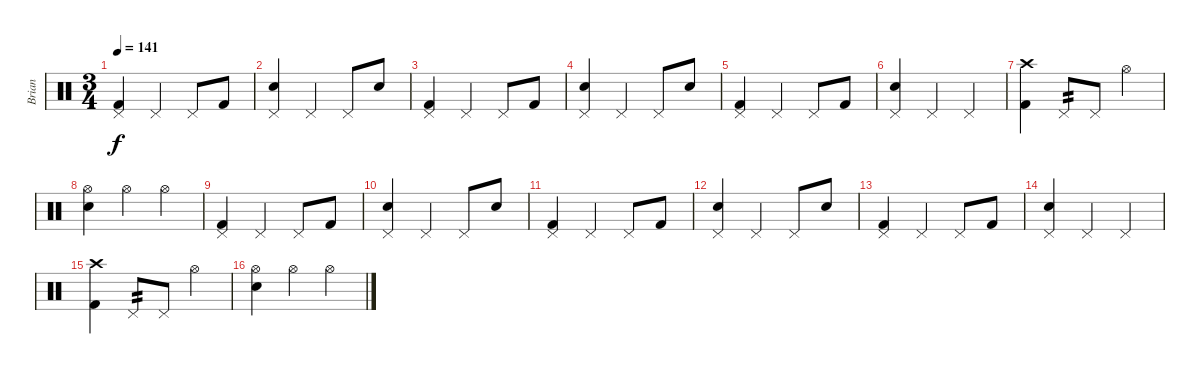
\track ("Brian" "Brian") {instrument percussion}
\staff {score}
\articulation defaults
\ts (3 4)
\tempo 141
\clef neutral
\ks c
("Pedal Hi-Hat (hit)" "Kick (hit) 2").4{dy f} "Pedal Hi-Hat (hit)".4 "Pedal Hi-Hat (hit)".8 "Kick (hit) 2".8 |
("Pedal Hi-Hat (hit)" "Electric Snare (hit)").4 "Pedal Hi-Hat (hit)".4 "Pedal Hi-Hat (hit)".8 "Electric Snare (hit)".8 |
("Pedal Hi-Hat (hit)" "Kick (hit) 2").4 "Pedal Hi-Hat (hit)".4 "Pedal Hi-Hat (hit)".8 "Kick (hit) 2".8 |
("Pedal Hi-Hat (hit)" "Electric Snare (hit)").4 "Pedal Hi-Hat (hit)".4 "Pedal Hi-Hat (hit)".8 "Electric Snare (hit)".8 |
("Pedal Hi-Hat (hit)" "Kick (hit) 2").4 "Pedal Hi-Hat (hit)".4 "Pedal Hi-Hat (hit)".8 "Kick (hit) 2".8 |
("Pedal Hi-Hat (hit)" "Electric Snare (hit)").4 "Pedal Hi-Hat (hit)".4 "Pedal Hi-Hat (hit)".4 |
("Crash high (hit)" "Kick (hit) 2").4 "Pedal Hi-Hat (hit)".8{tp 2} "Pedal Hi-Hat (hit)".8 "Hi-Hat (open)".4 |
("Hi-Hat (open)" "Electric Snare (hit)").4 "Hi-Hat (open)".4 "Hi-Hat (open)".4 |
("Pedal Hi-Hat (hit)" "Kick (hit) 2").4 "Pedal Hi-Hat (hit)".4 "Pedal Hi-Hat (hit)".8 "Kick (hit) 2".8 |
("Pedal Hi-Hat (hit)" "Electric Snare (hit)").4 "Pedal Hi-Hat (hit)".4 "Pedal Hi-Hat (hit)".8 "Electric Snare (hit)".8 |
("Pedal Hi-Hat (hit)" "Kick (hit) 2").4 "Pedal Hi-Hat (hit)".4 "Pedal Hi-Hat (hit)".8 "Kick (hit) 2".8 |
("Pedal Hi-Hat (hit)" "Electric Snare (hit)").4 "Pedal Hi-Hat (hit)".4 "Pedal Hi-Hat (hit)".8 "Electric Snare (hit)".8 |
("Pedal Hi-Hat (hit)" "Kick (hit) 2").4 "Pedal Hi-Hat (hit)".4 "Pedal Hi-Hat (hit)".8 "Kick (hit) 2".8 |
("Pedal Hi-Hat (hit)" "Electric Snare (hit)").4 "Pedal Hi-Hat (hit)".4 "Pedal Hi-Hat (hit)".4 |
("Crash high (hit)" "Kick (hit) 2").4 "Pedal Hi-Hat (hit)".8{tp 2} "Pedal Hi-Hat (hit)".8 "Hi-Hat (open)".4 |
("Hi-Hat (open)" "Electric Snare (hit)").4 "Hi-Hat (open)".4 "Hi-Hat (open)".4
